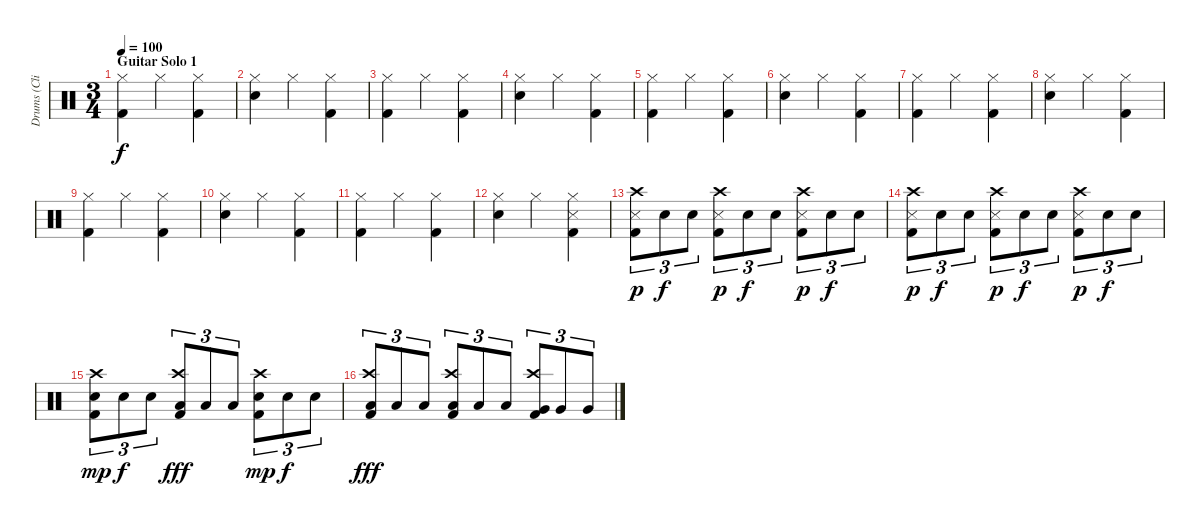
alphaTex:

\track ("Drums (Clive Bunker)" "Drums (Cli") {instrument percussion}
\staff {score}
\articulation defaults
\ts (3 4)
\section ("" "Guitar Solo 1")
\tempo 100
\clef neutral
\ks c
("Hi-Hat (closed)" "Kick (hit) 2").4{dy f} "Hi-Hat (closed)".4 ("Hi-Hat (closed)" "Kick (hit) 2").4 |
("Hi-Hat (closed)" "Snare (hit) 2").4 "Hi-Hat (closed)".4 ("Hi-Hat (closed)" "Kick (hit) 2").4 |
("Hi-Hat (closed)" "Kick (hit) 2").4 "Hi-Hat (closed)".4 ("Hi-Hat (closed)" "Kick (hit) 2").4 |
("Hi-Hat (closed)" "Snare (hit) 2").4 "Hi-Hat (closed)".4 ("Hi-Hat (closed)" "Kick (hit) 2").4 |
("Hi-Hat (closed)" "Kick (hit) 2").4 "Hi-Hat (closed)".4 ("Hi-Hat (closed)" "Kick (hit) 2").4 |
("Hi-Hat (closed)" "Snare (hit) 2").4 "Hi-Hat (closed)".4 ("Hi-Hat (closed)" "Kick (hit) 2").4 |
("Hi-Hat (closed)" "Kick (hit) 2").4 "Hi-Hat (closed)".4 ("Hi-Hat (closed)" "Kick (hit) 2").4 |
("Hi-Hat (closed)" "Snare (hit) 2").4 "Hi-Hat (closed)".4 ("Hi-Hat (closed)" "Kick (hit) 2").4 |
("Hi-Hat (closed)" "Kick (hit) 2").4 "Hi-Hat (closed)".4 ("Hi-Hat (closed)" "Kick (hit) 2").4 |
("Hi-Hat (closed)" "Snare (hit) 2").4 "Hi-Hat (closed)".4 ("Hi-Hat (closed)" "Kick (hit) 2").4 |
("Hi-Hat (closed)" "Kick (hit) 2").4 "Hi-Hat (closed)".4 ("Hi-Hat (closed)" "Kick (hit) 2").4 |
("Hi-Hat (closed)" "Snare (hit) 2").4 "Hi-Hat (closed)".4 ("Hi-Hat (closed)" "Snare (side stick) 3" "Kick (hit) 2").4 |
("Crash high (hit)" "Snare (side stick) 3" "Kick (hit) 2").8{tu (3 2) dy p} "Snare (hit) 2".8{tu (3 2) dy f} "Snare (hit) 2".8{tu (3 2)} ("Crash high (hit)" "Snare (side stick) 3" "Kick (hit) 2").8{tu (3 2) dy p} "Snare (hit) 2".8{tu (3 2) dy f} "Snare (hit) 2".8{tu (3 2)} ("Crash high (hit)" "Snare (side stick) 3" "Kick (hit) 2").8{tu (3 2) dy p} "Snare (hit) 2".8{tu (3 2) dy f} "Snare (hit) 2".8{tu (3 2)} |
("Crash high (hit)" "Snare (side stick) 3" "Kick (hit) 2").8{tu (3 2) dy p} "Snare (hit) 2".8{tu (3 2) dy f} "Snare (hit) 2".8{tu (3 2)} ("Crash high (hit)" "Snare (side stick) 3" "Kick (hit) 2").8{tu (3 2) dy p} "Snare (hit) 2".8{tu (3 2) dy f} "Snare (hit) 2".8{tu (3 2)} ("Crash high (hit)" "Snare (side stick) 3" "Kick (hit) 2").8{tu (3 2) dy p} "Snare (hit) 2".8{tu (3 2) dy f} "Snare (hit) 2".8{tu (3 2)} |
("Crash high (hit)" "Snare (hit) 2" "Kick (hit) 2").8{tu (3 2) dy mp} "Snare (hit) 2".8{tu (3 2) dy f} "Snare (hit) 2".8{tu (3 2)} ("Crash high (hit)" "Low Tom (hit)" "Kick (hit) 2").8{tu (3 2) dy fff} "Low Tom (hit)".8{tu (3 2)} "Low Tom (hit)".8{tu (3 2)} ("Crash high (hit)" "Snare (hit) 2" "Kick (hit) 2").8{tu (3 2) dy mp} "Snare (hit) 2".8{tu (3 2) dy f} "Snare (hit) 2".8{tu (3 2)} |
("Crash high (hit)" "Low Tom (hit)" "Kick (hit) 2").8{tu (3 2) dy fff} "Low Tom (hit)".8{tu (3 2)} "Low Tom (hit)".8{tu (3 2)} ("Crash high (hit)" "Low Tom (hit)" "Kick (hit) 2").8{tu (3 2)} "Low Tom (hit)".8{tu (3 2)} "Low Tom (hit)".8{tu (3 2)} ("Crash high (hit)" "Very Low Tom (hit)" "Kick (hit) 2").8{tu (3 2)} "Very Low Tom (hit)".8{tu (3 2)} "Very Low Tom (hit)".8{tu (3 2)}
